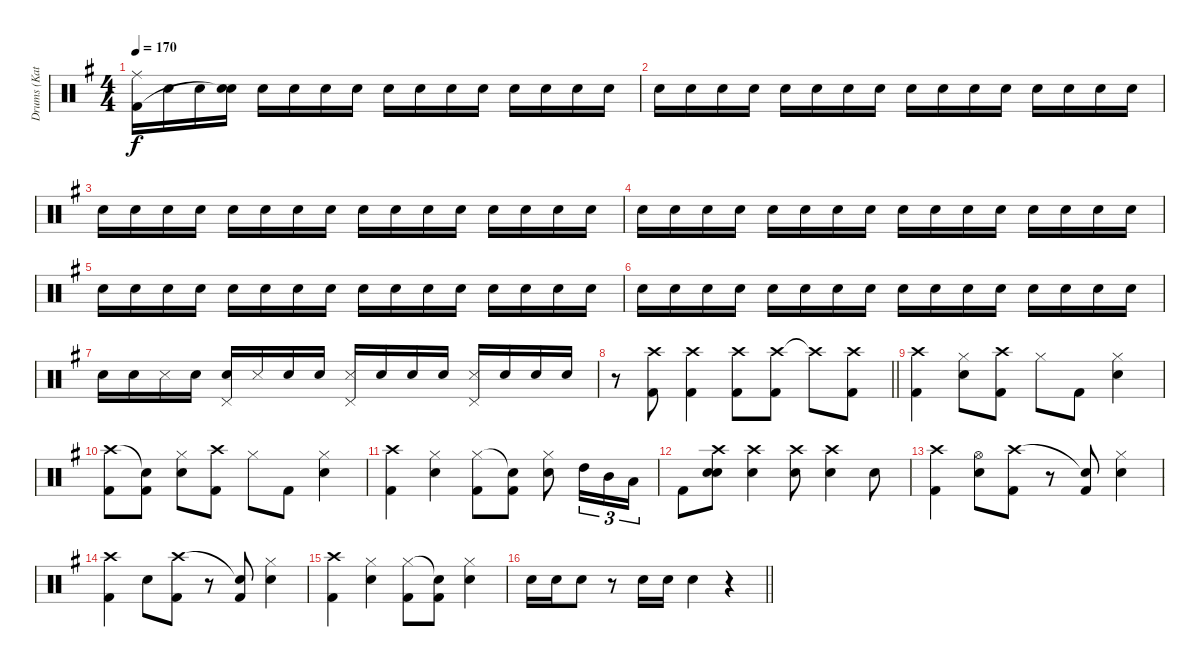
\track ("Drums (Katsuji)" "Drums (Kat") {instrument percussion}
\staff {score}
\articulation defaults
\ts (4 4)
\tempo 170
\clef neutral
\ks g
("Ride (middle)" "Kick (hit) 2").16{dy f} "Snare (hit) 2".16 "Snare (hit) 2".16 ("Snare (hit) 2" "Snare (hit)"{t}).16 "Snare (hit) 2".16 "Snare (hit) 2".16 "Snare (hit) 2".16 "Snare (hit) 2".16 "Snare (hit) 2".16 "Snare (hit) 2".16 "Snare (hit) 2".16 "Snare (hit) 2".16 "Snare (hit) 2".16 "Snare (hit) 2".16 "Snare (hit) 2".16 "Snare (hit) 2".16 |
"Snare (hit) 2".16 "Snare (hit) 2".16 "Snare (hit) 2".16 "Snare (hit) 2".16 "Snare (hit) 2".16 "Snare (hit) 2".16 "Snare (hit) 2".16 "Snare (hit) 2".16 "Snare (hit) 2".16 "Snare (hit) 2".16 "Snare (hit) 2".16 "Snare (hit) 2".16 "Snare (hit) 2".16 "Snare (hit) 2".16 "Snare (hit) 2".16 "Snare (hit) 2".16 |
"Snare (hit) 2".16 "Snare (hit) 2".16 "Snare (hit) 2".16 "Snare (hit) 2".16 "Snare (hit) 2".16 "Snare (hit) 2".16 "Snare (hit) 2".16 "Snare (hit) 2".16 "Snare (hit) 2".16 "Snare (hit) 2".16 "Snare (hit) 2".16 "Snare (hit) 2".16 "Snare (hit) 2".16 "Snare (hit) 2".16 "Snare (hit) 2".16 "Snare (hit) 2".16 |
"Snare (hit) 2".16 "Snare (hit) 2".16 "Snare (hit) 2".16 "Snare (hit) 2".16 "Snare (hit) 2".16 "Snare (hit) 2".16 "Snare (hit) 2".16 "Snare (hit) 2".16 "Snare (hit) 2".16 "Snare (hit) 2".16 "Snare (hit) 2".16 "Snare (hit) 2".16 "Snare (hit) 2".16 "Snare (hit) 2".16 "Snare (hit) 2".16 "Snare (hit) 2".16 |
"Snare (hit) 2".16 "Snare (hit) 2".16 "Snare (hit) 2".16 "Snare (hit) 2".16 "Snare (hit) 2".16 "Snare (hit) 2".16 "Snare (hit) 2".16 "Snare (hit) 2".16 "Snare (hit) 2".16 "Snare (hit) 2".16 "Snare (hit) 2".16 "Snare (hit) 2".16 "Snare (hit) 2".16 "Snare (hit) 2".16 "Snare (hit) 2".16 "Snare (hit) 2".16 |
"Snare (hit) 2".16 "Snare (hit) 2".16 "Snare (hit) 2".16 "Snare (hit) 2".16 "Snare (hit) 2".16 "Snare (hit) 2".16 "Snare (hit) 2".16 "Snare (hit) 2".16 "Snare (hit) 2".16 "Snare (hit) 2".16 "Snare (hit) 2".16 "Snare (hit) 2".16 "Snare (hit) 2".16 "Snare (hit) 2".16 "Snare (hit) 2".16 "Snare (hit) 2".16 |
"Snare (hit) 2".16 "Snare (hit) 2".16 "Snare (side stick) 3".16 "Snare (hit) 2".16 ("Snare (hit) 2" "Pedal Hi-Hat (hit)").16 "Snare (side stick) 3".16 "Snare (hit) 2".16 "Snare (hit) 2".16 ("Snare (side stick) 3" "Pedal Hi-Hat (hit)").16 "Snare (hit) 2".16 "Snare (hit) 2".16 "Snare (hit) 2".16 ("Snare (side stick) 3" "Pedal Hi-Hat (hit)").16 "Snare (hit) 2".16 "Snare (hit) 2".16 "Snare (hit) 2".16 |
\barLineRight lightlight
r.8 ("Crash high (hit)" "Kick (hit) 2").8 ("Crash high (hit)" "Kick (hit) 2").4 ("Crash high (hit)" "Kick (hit) 2").8 ("Crash high (hit)" "Kick (hit) 2").8 "Crash high (hit)"{t}.8 ("Crash high (hit)" "Kick (hit) 2").8 |
("Crash high (hit)" "Kick (hit) 2").4 ("Hi-Hat (closed)" "Snare (hit) 2").8 ("Crash high (hit)" "Kick (hit) 2").8 "Hi-Hat (closed)".8 "Kick (hit) 2".8 ("Hi-Hat (closed)" "Snare (hit) 2").4 |
("Crash high (hit)" "Kick (hit) 2").8 ("Snare (hit)"{t} "Kick (hit) 2").8 ("Hi-Hat (closed)" "Snare (hit) 2").8 ("Crash high (hit)" "Kick (hit) 2").8 "Hi-Hat (closed)".8 "Kick (hit) 2".8 ("Hi-Hat (closed)" "Snare (hit) 2").4 |
("Crash high (hit)" "Kick (hit) 2").4 ("Hi-Hat (closed)" "Snare (hit) 2").4 ("Hi-Hat (closed)" "Kick (hit) 2").8 ("Snare (hit)"{t} "Kick (hit) 2").8 ("Hi-Hat (closed)" "Snare (hit) 2").8 "High Tom (hit)".16{tu (3 2)} "Mid Tom (hit)".16{tu (3 2)} "Low Tom (hit)".16{tu (3 2)} |
"Kick (hit) 2".8 ("Crash high (hit)" "Snare (hit) 2" "Snare (hit)").8 ("Crash high (hit)" "Snare (hit) 2").4 ("Crash high (hit)" "Snare (hit) 2").8 ("Crash high (hit)" "Snare (hit) 2").4 "Snare (hit) 2".8 |
("Crash high (hit)" "Kick (hit) 2").4 ("Hi-Hat (open)" "Snare (hit) 2").8 ("Crash high (hit)" "Kick (hit) 2").8 r.8 ("Snare (hit)"{t} "Kick (hit) 2").8 ("Hi-Hat (closed)" "Snare (hit) 2").4 |
("Crash high (hit)" "Kick (hit) 2").4 "Snare (hit) 2".8 ("Crash high (hit)" "Kick (hit) 2").8 r.8 ("Snare (hit)"{t} "Kick (hit) 2").8 ("Hi-Hat (closed)" "Snare (hit) 2").4 |
("Crash high (hit)" "Kick (hit) 2").4 ("Hi-Hat (closed)" "Snare (hit) 2").4 ("Hi-Hat (closed)" "Kick (hit) 2").8 ("Snare (hit)"{t} "Kick (hit) 2").8 ("Hi-Hat (closed)" "Snare (hit) 2").4 |
\barLineRight lightlight "Snare (hit) 2".16 "Snare (hit) 2".16 "Snare (hit) 2".8
r.8 "Snare (hit) 2".16 "Snare (hit) 2".16 "Snare (hit) 2".4 r.4
